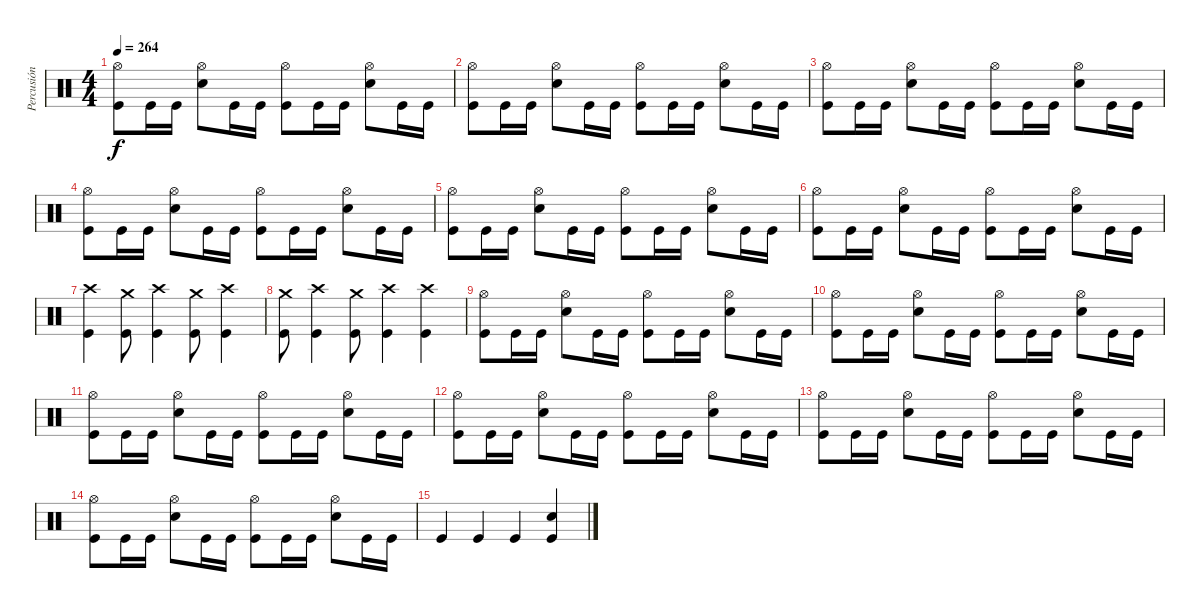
\track ("Percusión" "Percusión") {instrument percussion}
\staff {score}
\articulation defaults
\ts (4 4)
\tempo 264
\clef neutral
\ks c
("Hi-Hat (open)" "Kick (hit)").8{dy f} "Kick (hit)".16 "Kick (hit)".16 ("Hi-Hat (open)" "Snare (hit) 2").8 "Kick (hit)".16 "Kick (hit)".16 ("Hi-Hat (open)" "Kick (hit)").8 "Kick (hit)".16 "Kick (hit)".16 ("Hi-Hat (open)" "Snare (hit) 2").8 "Kick (hit)".16 "Kick (hit)".16 |
("Hi-Hat (open)" "Kick (hit)").8 "Kick (hit)".16 "Kick (hit)".16 ("Hi-Hat (open)" "Snare (hit) 2").8 "Kick (hit)".16 "Kick (hit)".16 ("Hi-Hat (open)" "Kick (hit)").8 "Kick (hit)".16 "Kick (hit)".16 ("Hi-Hat (open)" "Snare (hit) 2").8 "Kick (hit)".16 "Kick (hit)".16 |
("Hi-Hat (open)" "Kick (hit)").8 "Kick (hit)".16 "Kick (hit)".16 ("Hi-Hat (open)" "Snare (hit) 2").8 "Kick (hit)".16 "Kick (hit)".16 ("Hi-Hat (open)" "Kick (hit)").8 "Kick (hit)".16 "Kick (hit)".16 ("Hi-Hat (open)" "Snare (hit) 2").8 "Kick (hit)".16 "Kick (hit)".16 |
("Hi-Hat (open)" "Kick (hit)").8 "Kick (hit)".16 "Kick (hit)".16 ("Hi-Hat (open)" "Snare (hit) 2").8 "Kick (hit)".16 "Kick (hit)".16 ("Hi-Hat (open)" "Kick (hit)").8 "Kick (hit)".16 "Kick (hit)".16 ("Hi-Hat (open)" "Snare (hit) 2").8 "Kick (hit)".16 "Kick (hit)".16 |
("Hi-Hat (open)" "Kick (hit)").8 "Kick (hit)".16 "Kick (hit)".16 ("Hi-Hat (open)" "Snare (hit) 2").8 "Kick (hit)".16 "Kick (hit)".16 ("Hi-Hat (open)" "Kick (hit)").8 "Kick (hit)".16 "Kick (hit)".16 ("Hi-Hat (open)" "Snare (hit) 2").8 "Kick (hit)".16 "Kick (hit)".16 |
("Hi-Hat (open)" "Kick (hit)").8 "Kick (hit)".16 "Kick (hit)".16 ("Hi-Hat (open)" "Snare (hit) 2").8 "Kick (hit)".16 "Kick (hit)".16 ("Hi-Hat (open)" "Kick (hit)").8 "Kick (hit)".16 "Kick (hit)".16 ("Hi-Hat (open)" "Snare (hit) 2").8 "Kick (hit)".16 "Kick (hit)".16 |
("Crash high (hit)" "Kick (hit)").4 ("Crash medium (hit)" "Kick (hit)").8 ("Crash high (hit)" "Kick (hit)").4 ("Crash medium (hit)" "Kick (hit)").8 ("Crash high (hit)" "Kick (hit)").4 |
("Crash medium (hit)" "Kick (hit)").8 ("Crash high (hit)" "Kick (hit)").4 ("Crash medium (hit)" "Kick (hit)").8 ("Crash high (hit)" "Kick (hit)").4 ("Crash high (hit)" "Kick (hit)").4 |
("Hi-Hat (open)" "Kick (hit)").8 "Kick (hit)".16 "Kick (hit)".16 ("Hi-Hat (open)" "Snare (hit) 2").8 "Kick (hit)".16 "Kick (hit)".16 ("Hi-Hat (open)" "Kick (hit)").8 "Kick (hit)".16 "Kick (hit)".16 ("Hi-Hat (open)" "Snare (hit) 2").8 "Kick (hit)".16 "Kick (hit)".16 |
("Hi-Hat (open)" "Kick (hit)").8 "Kick (hit)".16 "Kick (hit)".16 ("Hi-Hat (open)" "Snare (hit) 2").8 "Kick (hit)".16 "Kick (hit)".16 ("Hi-Hat (open)" "Kick (hit)").8 "Kick (hit)".16 "Kick (hit)".16 ("Hi-Hat (open)" "Snare (hit) 2").8 "Kick (hit)".16 "Kick (hit)".16 |
("Hi-Hat (open)" "Kick (hit)").8 "Kick (hit)".16 "Kick (hit)".16 ("Hi-Hat (open)" "Snare (hit) 2").8 "Kick (hit)".16 "Kick (hit)".16 ("Hi-Hat (open)" "Kick (hit)").8 "Kick (hit)".16 "Kick (hit)".16 ("Hi-Hat (open)" "Snare (hit) 2").8 "Kick (hit)".16 "Kick (hit)".16 |
("Hi-Hat (open)" "Kick (hit)").8 "Kick (hit)".16 "Kick (hit)".16 ("Hi-Hat (open)" "Snare (hit) 2").8 "Kick (hit)".16 "Kick (hit)".16 ("Hi-Hat (open)" "Kick (hit)").8 "Kick (hit)".16 "Kick (hit)".16 ("Hi-Hat (open)" "Snare (hit) 2").8 "Kick (hit)".16 "Kick (hit)".16 |
("Hi-Hat (open)" "Kick (hit)").8 "Kick (hit)".16 "Kick (hit)".16 ("Hi-Hat (open)" "Snare (hit) 2").8 "Kick (hit)".16 "Kick (hit)".16 ("Hi-Hat (open)" "Kick (hit)").8 "Kick (hit)".16 "Kick (hit)".16 ("Hi-Hat (open)" "Snare (hit) 2").8 "Kick (hit)".16 "Kick (hit)".16 |
("Hi-Hat (open)" "Kick (hit)").8 "Kick (hit)".16 "Kick (hit)".16 ("Hi-Hat (open)" "Snare (hit) 2").8 "Kick (hit)".16 "Kick (hit)".16 ("Hi-Hat (open)" "Kick (hit)").8 "Kick (hit)".16 "Kick (hit)".16 ("Hi-Hat (open)" "Snare (hit) 2").8 "Kick (hit)".16 "Kick (hit)".16 |
"Kick (hit)".4 "Kick (hit)".4 "Kick (hit)".4 ("Snare (hit) 2" "Kick (hit)").4
